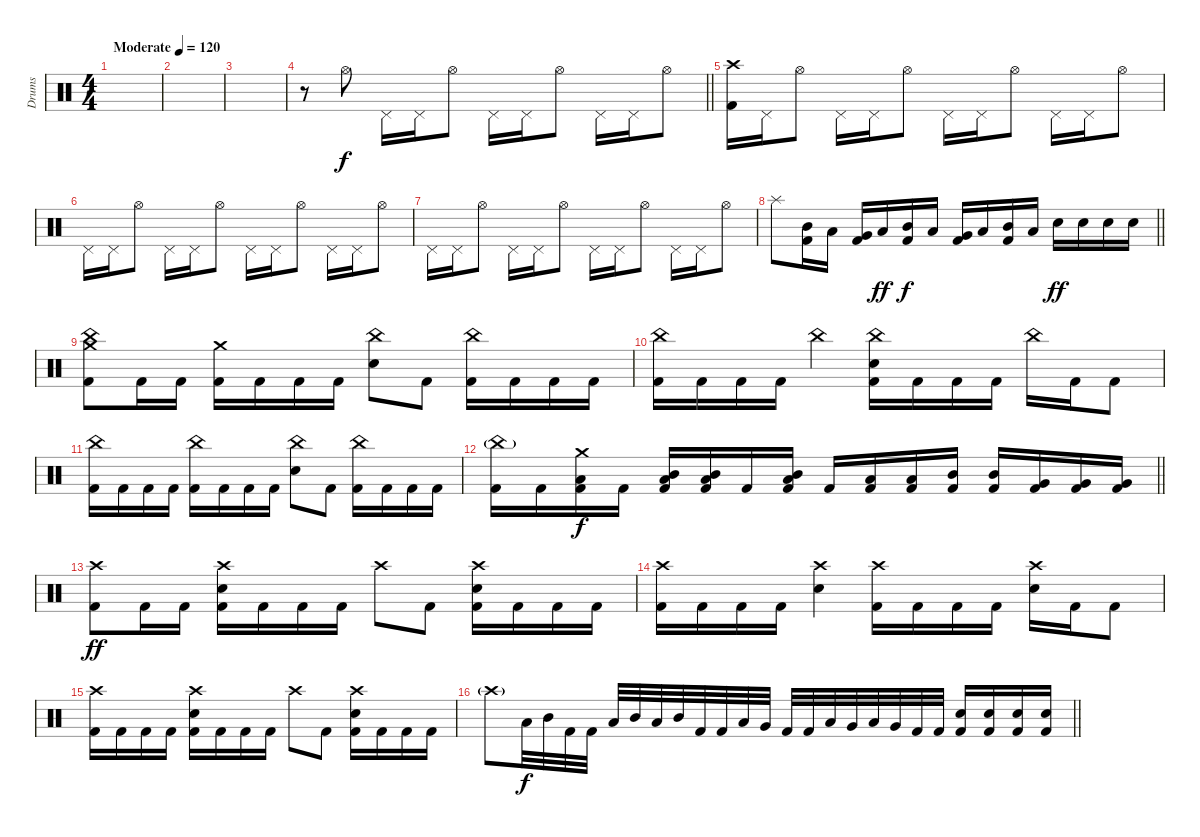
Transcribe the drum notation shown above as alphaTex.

\track ("Drums" "Drums") {instrument percussion}
\staff {score}
\articulation defaults
\ts (4 4)
\section ("" "")
\tempo (120 "Moderate")
\clef neutral
\ks c
|
|
|
\barLineRight lightlight
r.8 "Hi-Hat (open)".8 "Pedal Hi-Hat (hit)".16 "Pedal Hi-Hat (hit)".16 "Hi-Hat (open)".8 "Pedal Hi-Hat (hit)".16 "Pedal Hi-Hat (hit)".16 "Hi-Hat (open)".8 "Pedal Hi-Hat (hit)".16 "Pedal Hi-Hat (hit)".16 "Hi-Hat (open)".8 |
\section ("" "")
("Crash high (hit)" "Kick (hit) 2").16 "Pedal Hi-Hat (hit)".16 "Hi-Hat (open)".8 "Pedal Hi-Hat (hit)".16 "Pedal Hi-Hat (hit)".16 "Hi-Hat (open)".8 "Pedal Hi-Hat (hit)".16 "Pedal Hi-Hat (hit)".16 "Hi-Hat (open)".8 "Pedal Hi-Hat (hit)".16 "Pedal Hi-Hat (hit)".16 "Hi-Hat (open)".8 |
"Pedal Hi-Hat (hit)".16 "Pedal Hi-Hat (hit)".16 "Hi-Hat (open)".8 "Pedal Hi-Hat (hit)".16 "Pedal Hi-Hat (hit)".16 "Hi-Hat (open)".8 "Pedal Hi-Hat (hit)".16 "Pedal Hi-Hat (hit)".16 "Hi-Hat (open)".8 "Pedal Hi-Hat (hit)".16 "Pedal Hi-Hat (hit)".16 "Hi-Hat (open)".8 |
"Pedal Hi-Hat (hit)".16 "Pedal Hi-Hat (hit)".16 "Hi-Hat (open)".8 "Pedal Hi-Hat (hit)".16 "Pedal Hi-Hat (hit)".16 "Hi-Hat (open)".8 "Pedal Hi-Hat (hit)".16 "Pedal Hi-Hat (hit)".16 "Hi-Hat (open)".8 "Pedal Hi-Hat (hit)".16 "Pedal Hi-Hat (hit)".16 "Hi-Hat (open)".8 |
\barLineRight lightlight "Splash (hit)".8
("Mid Tom (hit)" "Kick (hit) 2").16 "Low Tom (hit)".16{dy f} ("Very Low Tom (hit)" "Kick (hit) 2").16 "Low Tom (hit)".16{dy ff} ("Mid Tom (hit)" "Kick (hit) 2").16{dy f} "Low Tom (hit)".16 ("Very Low Tom (hit)" "Kick (hit) 2").16 "Low Tom (hit)".16 ("Mid Tom (hit)" "Kick (hit) 2").16 "Low Tom (hit)".16 "Electric Snare (hit)".16{dy ff} "Electric Snare (hit)".16 "Electric Snare (hit)".16 "Electric Snare (hit)".16 |
\section ("" "")
("Crash medium (hit)" "China (hit)" "Kick (hit) 2").8 "Kick (hit) 2".16 "Kick (hit) 2".16 ("Crash medium (hit)" "Kick (hit) 2").16 "Kick (hit) 2".16 "Kick (hit) 2".16 "Kick (hit) 2".16 ("China (hit)" "Electric Snare (hit)").8 "Kick (hit) 2".8 ("China (hit)" "Kick (hit) 2").16 "Kick (hit) 2".16 "Kick (hit) 2".16 "Kick (hit) 2".16 |
("China (hit)" "Kick (hit) 2").16 "Kick (hit) 2".16 "Kick (hit) 2".16 "Kick (hit) 2".16 "China (hit)".4 ("China (hit)" "Electric Snare (hit)" "Kick (hit) 2").16 "Kick (hit) 2".16 "Kick (hit) 2".16 "Kick (hit) 2".16 "China (hit)".16 "Kick (hit) 2".16 "Kick (hit) 2".8 |
("China (hit)" "Kick (hit) 2").16 "Kick (hit) 2".16 "Kick (hit) 2".16 "Kick (hit) 2".16 ("China (hit)" "Kick (hit) 2").16 "Kick (hit) 2".16 "Kick (hit) 2".16 "Kick (hit) 2".16 ("China (hit)" "Electric Snare (hit)").8 "Kick (hit) 2".8 ("China (hit)" "Kick (hit) 2").16 "Kick (hit) 2".16 "Kick (hit) 2".16 "Kick (hit) 2".16 |
\barLineRight lightlight
("China (hit)"{g} "Kick (hit) 2").16 "Kick (hit) 2".16 ("Crash medium (hit)" "Low Tom (hit)" "Kick (hit) 2").16{dy f} "Kick (hit) 2".16 ("Mid Tom (hit)" "Low Tom (hit)" "Kick (hit) 2").16 ("Mid Tom (hit)" "Low Tom (hit)" "Kick (hit) 2").16 "Kick (hit) 2".16 ("Mid Tom (hit)" "Low Tom (hit)" "Kick (hit) 2").16 "Kick (hit) 2".16 ("Low Tom (hit)" "Kick (hit) 2").16 ("Low Tom (hit)" "Kick (hit) 2").16 ("Mid Tom (hit)" "Kick (hit) 2").16 ("Mid Tom (hit)" "Kick (hit) 2").16 ("Very Low Tom (hit)" "Kick (hit) 2").16 ("Very Low Tom (hit)" "Kick (hit) 2").16 ("Very Low Tom (hit)" "Kick (hit) 2").16 |
("Crash high (hit)" "Kick (hit) 2").8{dy ff} "Kick (hit) 2".16 "Kick (hit) 2".16 ("Crash high (hit)" "Electric Snare (hit)" "Kick (hit) 2").16 "Kick (hit) 2".16 "Kick (hit) 2".16 "Kick (hit) 2".16 "Crash high (hit)".8 "Kick (hit) 2".8 ("Crash high (hit)" "Electric Snare (hit)" "Kick (hit) 2").16 "Kick (hit) 2".16 "Kick (hit) 2".16 "Kick (hit) 2".16 |
("Crash high (hit)" "Kick (hit) 2").16 "Kick (hit) 2".16 "Kick (hit) 2".16 "Kick (hit) 2".16 ("Crash high (hit)" "Electric Snare (hit)").4 ("Crash high (hit)" "Kick (hit) 2").16 "Kick (hit) 2".16 "Kick (hit) 2".16 "Kick (hit) 2".16 ("Crash high (hit)" "Electric Snare (hit)").16 "Kick (hit) 2".16 "Kick (hit) 2".8 |
("Crash high (hit)" "Kick (hit) 2").16 "Kick (hit) 2".16 "Kick (hit) 2".16 "Kick (hit) 2".16 ("Crash high (hit)" "Electric Snare (hit)" "Kick (hit) 2").16 "Kick (hit) 2".16 "Kick (hit) 2".16 "Kick (hit) 2".16 "Crash high (hit)".8 "Kick (hit) 2".8 ("Crash high (hit)" "Electric Snare (hit)" "Kick (hit) 2").16 "Kick (hit) 2".16 "Kick (hit) 2".16 "Kick (hit) 2".16 |
\barLineRight lightlight "Crash high (hit)"{g}.8 "Low Tom (hit)".32{dy f} "Mid Tom (hit)".32 "Kick (hit) 2".32 "Kick (hit) 2".32 "Low Tom (hit)".32 "Mid Tom (hit)".32 "Low Tom (hit)".32 "Mid Tom (hit)".32 "Kick (hit) 2".32 "Kick (hit) 2".32 "Low Tom (hit)".32 "Very Low Tom (hit)".32 "Kick (hit) 2".32 "Kick (hit) 2".32 "Low Tom (hit)".32 "Very Low Tom (hit)".32 "Low Tom (hit)".32 "Very Low Tom (hit)".32 "Kick (hit) 2".32 "Kick (hit) 2".32
("Electric Snare (hit)" "Kick (hit) 2").16 ("Electric Snare (hit)" "Kick (hit) 2").16 ("Electric Snare (hit)" "Kick (hit) 2").16 ("Electric Snare (hit)" "Kick (hit) 2").16
